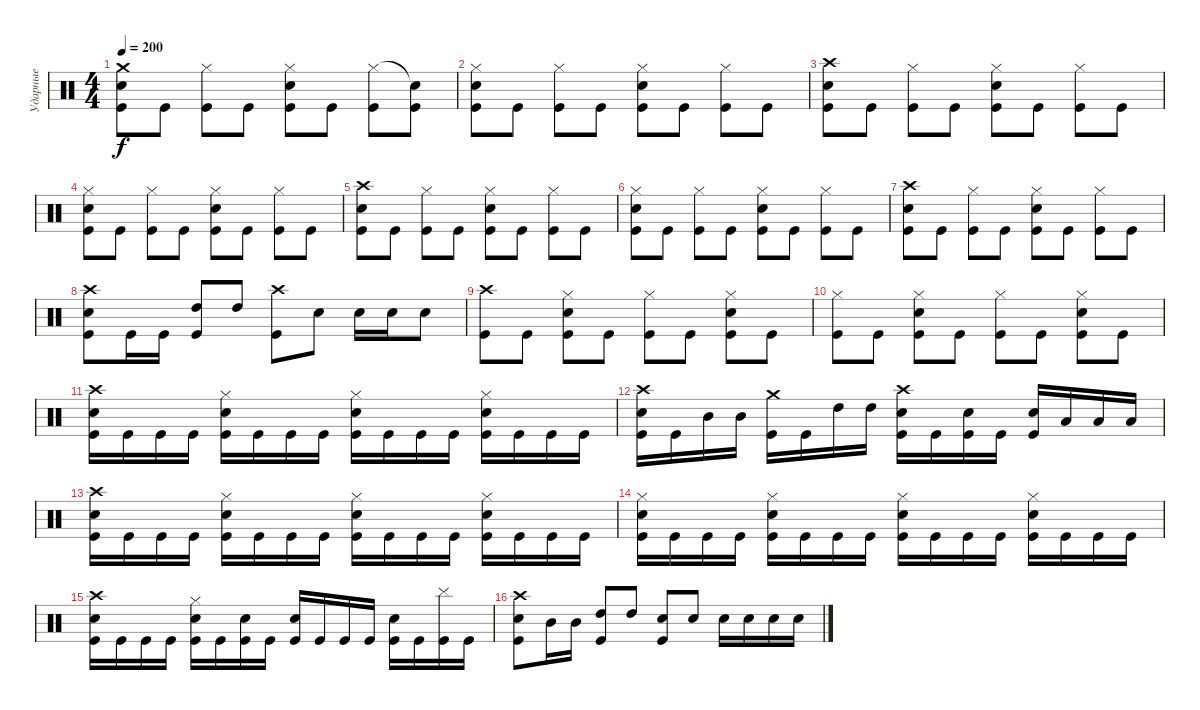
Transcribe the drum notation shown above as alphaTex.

\track ("Ударные" "Ударные") {instrument percussion}
\staff {score}
\articulation defaults
\ts (4 4)
\tempo 200
\clef neutral
\ks c
("Crash medium (hit)" "Electric Snare (hit)" "Kick (hit)").8{dy f} "Kick (hit)".8 ("Hi-Hat (closed)" "Kick (hit)").8 "Kick (hit)".8 ("Hi-Hat (closed)" "Electric Snare (hit)" "Kick (hit)").8 "Kick (hit)".8 ("Hi-Hat (closed)" "Kick (hit)").8 ("Snare (hit)"{t} "Kick (hit)").8 |
("Hi-Hat (closed)" "Electric Snare (hit)" "Kick (hit)").8 "Kick (hit)".8 ("Hi-Hat (closed)" "Kick (hit)").8 "Kick (hit)".8 ("Hi-Hat (closed)" "Electric Snare (hit)" "Kick (hit)").8 "Kick (hit)".8 ("Hi-Hat (closed)" "Kick (hit)").8 "Kick (hit)".8 |
("Crash high (hit)" "Electric Snare (hit)" "Kick (hit)").8 "Kick (hit)".8 ("Hi-Hat (closed)" "Kick (hit)").8 "Kick (hit)".8 ("Hi-Hat (closed)" "Electric Snare (hit)" "Kick (hit)").8 "Kick (hit)".8 ("Hi-Hat (closed)" "Kick (hit)").8 "Kick (hit)".8 |
("Hi-Hat (closed)" "Electric Snare (hit)" "Kick (hit)").8 "Kick (hit)".8 ("Hi-Hat (closed)" "Kick (hit)").8 "Kick (hit)".8 ("Hi-Hat (closed)" "Electric Snare (hit)" "Kick (hit)").8 "Kick (hit)".8 ("Hi-Hat (closed)" "Kick (hit)").8 "Kick (hit)".8 |
("Crash high (hit)" "Electric Snare (hit)" "Kick (hit)").8 "Kick (hit)".8 ("Hi-Hat (closed)" "Kick (hit)").8 "Kick (hit)".8 ("Hi-Hat (closed)" "Electric Snare (hit)" "Kick (hit)").8 "Kick (hit)".8 ("Hi-Hat (closed)" "Kick (hit)").8 "Kick (hit)".8 |
("Hi-Hat (closed)" "Electric Snare (hit)" "Kick (hit)").8 "Kick (hit)".8 ("Hi-Hat (closed)" "Kick (hit)").8 "Kick (hit)".8 ("Hi-Hat (closed)" "Electric Snare (hit)" "Kick (hit)").8 "Kick (hit)".8 ("Hi-Hat (closed)" "Kick (hit)").8 "Kick (hit)".8 |
("Crash high (hit)" "Electric Snare (hit)" "Kick (hit)").8 "Kick (hit)".8 ("Hi-Hat (closed)" "Kick (hit)").8 "Kick (hit)".8 ("Hi-Hat (closed)" "Electric Snare (hit)" "Kick (hit)").8 "Kick (hit)".8 ("Hi-Hat (closed)" "Kick (hit)").8 "Kick (hit)".8 |
("Crash high (hit)" "Electric Snare (hit)" "Kick (hit)").8 "Kick (hit)".16 "Kick (hit)".16 ("High Tom (hit)" "Kick (hit)").8 "High Tom (hit)".8 ("Crash high (hit)" "Kick (hit)").8 "Electric Snare (hit)".8 "Electric Snare (hit)".16 "Electric Snare (hit)".16 "Electric Snare (hit)".8 |
("Crash high (hit)" "Kick (hit)").8 "Kick (hit)".8 ("Hi-Hat (closed)" "Electric Snare (hit)" "Kick (hit)").8 "Kick (hit)".8 ("Hi-Hat (closed)" "Kick (hit)").8 "Kick (hit)".8 ("Hi-Hat (closed)" "Electric Snare (hit)" "Kick (hit)").8 "Kick (hit)".8 |
("Hi-Hat (closed)" "Kick (hit)").8 "Kick (hit)".8 ("Hi-Hat (closed)" "Electric Snare (hit)" "Kick (hit)").8 "Kick (hit)".8 ("Hi-Hat (closed)" "Kick (hit)").8 "Kick (hit)".8 ("Hi-Hat (closed)" "Electric Snare (hit)" "Kick (hit)").8 "Kick (hit)".8 |
("Crash high (hit)" "Electric Snare (hit)" "Kick (hit)").16 "Kick (hit)".16 "Kick (hit)".16 "Kick (hit)".16 ("Hi-Hat (closed)" "Electric Snare (hit)" "Kick (hit)").16 "Kick (hit)".16 "Kick (hit)".16 "Kick (hit)".16 ("Hi-Hat (closed)" "Electric Snare (hit)" "Kick (hit)").16 "Kick (hit)".16 "Kick (hit)".16 "Kick (hit)".16 ("Hi-Hat (closed)" "Electric Snare (hit)" "Kick (hit)").16 "Kick (hit)".16 "Kick (hit)".16 "Kick (hit)".16 |
("Crash high (hit)" "Electric Snare (hit)" "Kick (hit)").16 "Kick (hit)".16 "Mid Tom (hit)".16 "Mid Tom (hit)".16 ("Crash medium (hit)" "Kick (hit)").16 "Kick (hit)".16 "High Tom (hit)".16 "High Tom (hit)".16 ("Crash high (hit)" "Electric Snare (hit)" "Kick (hit)").16 "Kick (hit)".16 ("Electric Snare (hit)" "Kick (hit)").16 "Kick (hit)".16 ("Electric Snare (hit)" "Kick (hit)").16 "Low Tom (hit)".16 "Low Tom (hit)".16 "Low Tom (hit)".16 |
("Crash high (hit)" "Electric Snare (hit)" "Kick (hit)").16 "Kick (hit)".16 "Kick (hit)".16 "Kick (hit)".16 ("Hi-Hat (closed)" "Electric Snare (hit)" "Kick (hit)").16 "Kick (hit)".16 "Kick (hit)".16 "Kick (hit)".16 ("Hi-Hat (closed)" "Electric Snare (hit)" "Kick (hit)").16 "Kick (hit)".16 "Kick (hit)".16 "Kick (hit)".16 ("Hi-Hat (closed)" "Electric Snare (hit)" "Kick (hit)").16 "Kick (hit)".16 "Kick (hit)".16 "Kick (hit)".16 |
("Hi-Hat (closed)" "Electric Snare (hit)" "Kick (hit)").16 "Kick (hit)".16 "Kick (hit)".16 "Kick (hit)".16 ("Hi-Hat (closed)" "Electric Snare (hit)" "Kick (hit)").16 "Kick (hit)".16 "Kick (hit)".16 "Kick (hit)".16 ("Hi-Hat (closed)" "Electric Snare (hit)" "Kick (hit)").16 "Kick (hit)".16 "Kick (hit)".16 "Kick (hit)".16 ("Hi-Hat (closed)" "Electric Snare (hit)" "Kick (hit)").16 "Kick (hit)".16 "Kick (hit)".16 "Kick (hit)".16 |
("Crash high (hit)" "Electric Snare (hit)" "Kick (hit)").16 "Kick (hit)".16 "Kick (hit)".16 "Kick (hit)".16 ("Hi-Hat (closed)" "Electric Snare (hit)" "Kick (hit)").16 "Kick (hit)".16 ("Electric Snare (hit)" "Kick (hit)").16 "Kick (hit)".16 ("Electric Snare (hit)" "Kick (hit)").16 "Kick (hit)".16 "Kick (hit)".16 "Kick (hit)".16 ("Electric Snare (hit)" "Kick (hit)").16 "Kick (hit)".16 ("Cymbal (hit)" "Kick (hit)").16 "Kick (hit)".16 |
("Crash high (hit)" "Electric Snare (hit)" "Kick (hit)").8 "Mid Tom (hit)".16 "Mid Tom (hit)".16 ("High Tom (hit)" "Kick (hit)").8 "High Tom (hit)".8 ("Electric Snare (hit)" "Kick (hit)").8 "Electric Snare (hit)".8 "Electric Snare (hit)".16 "Electric Snare (hit)".16 "Electric Snare (hit)".16 "Electric Snare (hit)".16
